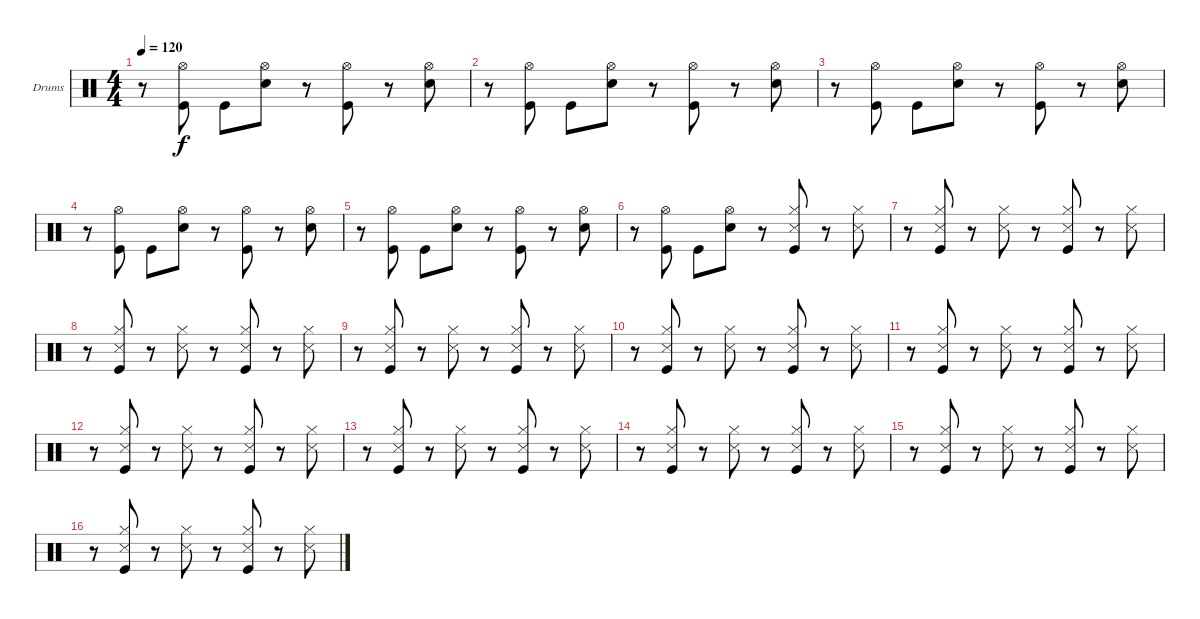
\defaultSystemsLayout 4
\bracketExtendMode groupsimilarinstruments
\firstSystemTrackNameOrientation horizontal
\otherSystemsTrackNameOrientation horizontal
\track ("Drumkit" "Drums") {instrument percussion}
\staff {score}
\articulation defaults
\ts (4 4)
\tempo 120
\clef neutral
\ks c
r.8{dy f} ("Kick (hit)" "Hi-Hat (open)").8 "Kick (hit)".8 ("Snare (hit) 2" "Hi-Hat (open)").8 r.8 ("Kick (hit)" "Hi-Hat (open)").8 r.8 ("Snare (hit) 2" "Hi-Hat (open)").8 |
r.8 ("Kick (hit)" "Hi-Hat (open)").8 "Kick (hit)".8 ("Snare (hit) 2" "Hi-Hat (open)").8 r.8 ("Kick (hit)" "Hi-Hat (open)").8 r.8 ("Snare (hit) 2" "Hi-Hat (open)").8 |
r.8 ("Kick (hit)" "Hi-Hat (open)").8 "Kick (hit)".8 ("Snare (hit) 2" "Hi-Hat (open)").8 r.8 ("Kick (hit)" "Hi-Hat (open)").8 r.8 ("Snare (hit) 2" "Hi-Hat (open)").8 |
r.8 ("Kick (hit)" "Hi-Hat (open)").8 "Kick (hit)".8 ("Snare (hit) 2" "Hi-Hat (open)").8 r.8 ("Kick (hit)" "Hi-Hat (open)").8 r.8 ("Snare (hit) 2" "Hi-Hat (open)").8 |
r.8 ("Kick (hit)" "Hi-Hat (open)").8 "Kick (hit)".8 ("Snare (hit) 2" "Hi-Hat (open)").8 r.8 ("Kick (hit)" "Hi-Hat (open)").8 r.8 ("Snare (hit) 2" "Hi-Hat (open)").8 |
r.8 ("Kick (hit)" "Hi-Hat (open)").8 "Kick (hit)".8 ("Snare (hit) 2" "Hi-Hat (open)").8 r.8 ("Hi-Hat (closed)" "Snare (side stick) 3" "Kick (hit)").8 r.8 ("Hi-Hat (closed)" "Snare (side stick) 3").8 |
r.8 ("Hi-Hat (closed)" "Snare (side stick) 3" "Kick (hit)").8 r.8 ("Hi-Hat (closed)" "Snare (side stick) 3").8 r.8 ("Hi-Hat (closed)" "Snare (side stick) 3" "Kick (hit)").8 r.8 ("Hi-Hat (closed)" "Snare (side stick) 3").8 |
r.8 ("Hi-Hat (closed)" "Snare (side stick) 3" "Kick (hit)").8 r.8 ("Hi-Hat (closed)" "Snare (side stick) 3").8 r.8 ("Hi-Hat (closed)" "Snare (side stick) 3" "Kick (hit)").8 r.8 ("Hi-Hat (closed)" "Snare (side stick) 3").8 |
r.8 ("Hi-Hat (closed)" "Snare (side stick) 3" "Kick (hit)").8 r.8 ("Hi-Hat (closed)" "Snare (side stick) 3").8 r.8 ("Hi-Hat (closed)" "Snare (side stick) 3" "Kick (hit)").8 r.8 ("Hi-Hat (closed)" "Snare (side stick) 3").8 |
r.8 ("Hi-Hat (closed)" "Snare (side stick) 3" "Kick (hit)").8 r.8 ("Hi-Hat (closed)" "Snare (side stick) 3").8 r.8 ("Hi-Hat (closed)" "Snare (side stick) 3" "Kick (hit)").8 r.8 ("Hi-Hat (closed)" "Snare (side stick) 3").8 |
r.8 ("Hi-Hat (closed)" "Snare (side stick) 3" "Kick (hit)").8 r.8 ("Hi-Hat (closed)" "Snare (side stick) 3").8 r.8 ("Hi-Hat (closed)" "Snare (side stick) 3" "Kick (hit)").8 r.8 ("Hi-Hat (closed)" "Snare (side stick) 3").8 |
r.8 ("Hi-Hat (closed)" "Snare (side stick) 3" "Kick (hit)").8 r.8 ("Hi-Hat (closed)" "Snare (side stick) 3").8 r.8 ("Hi-Hat (closed)" "Snare (side stick) 3" "Kick (hit)").8 r.8 ("Hi-Hat (closed)" "Snare (side stick) 3").8 |
r.8 ("Hi-Hat (closed)" "Snare (side stick) 3" "Kick (hit)").8 r.8 ("Hi-Hat (closed)" "Snare (side stick) 3").8 r.8 ("Hi-Hat (closed)" "Snare (side stick) 3" "Kick (hit)").8 r.8 ("Hi-Hat (closed)" "Snare (side stick) 3").8 |
r.8 ("Hi-Hat (closed)" "Snare (side stick) 3" "Kick (hit)").8 r.8 ("Hi-Hat (closed)" "Snare (side stick) 3").8 r.8 ("Hi-Hat (closed)" "Snare (side stick) 3" "Kick (hit)").8 r.8 ("Hi-Hat (closed)" "Snare (side stick) 3").8 |
r.8 ("Hi-Hat (closed)" "Snare (side stick) 3" "Kick (hit)").8 r.8 ("Hi-Hat (closed)" "Snare (side stick) 3").8 r.8 ("Hi-Hat (closed)" "Snare (side stick) 3" "Kick (hit)").8 r.8 ("Hi-Hat (closed)" "Snare (side stick) 3").8 |
r.8 ("Hi-Hat (closed)" "Snare (side stick) 3" "Kick (hit)").8 r.8 ("Hi-Hat (closed)" "Snare (side stick) 3").8 r.8 ("Hi-Hat (closed)" "Snare (side stick) 3" "Kick (hit)").8 r.8 ("Hi-Hat (closed)" "Snare (side stick) 3").8
